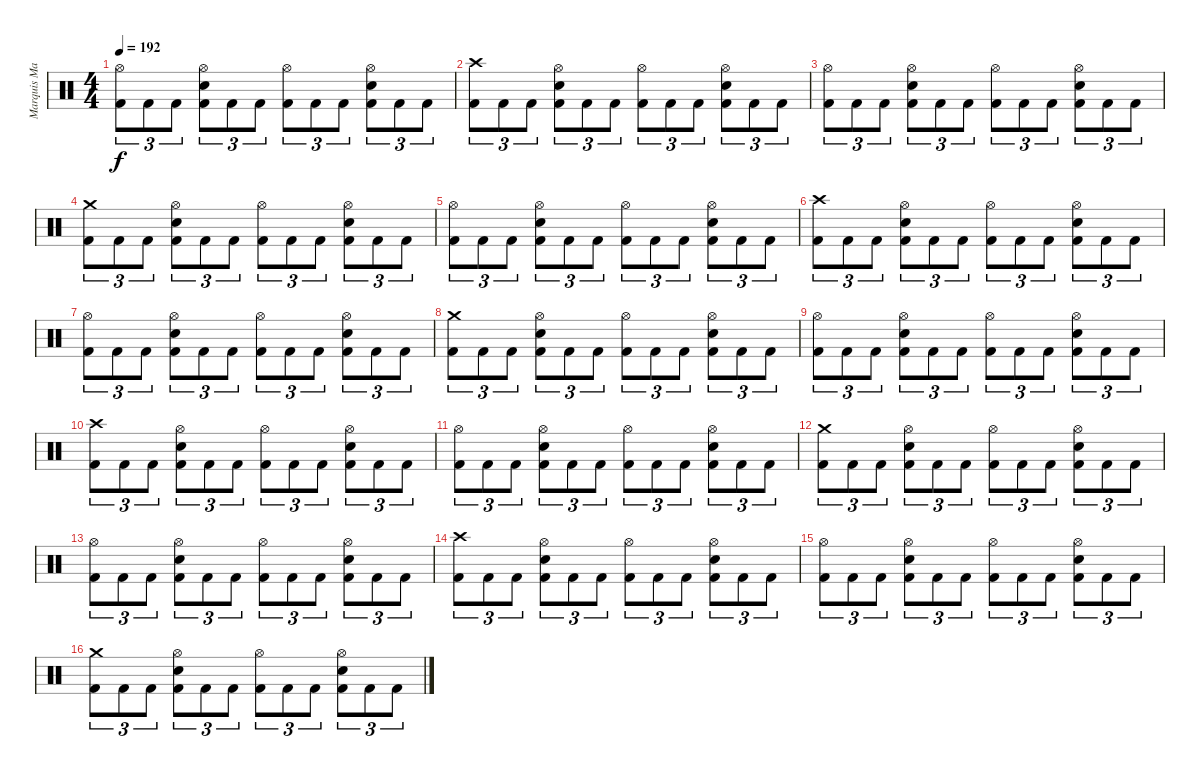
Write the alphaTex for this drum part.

\track ("Marquis Marky (DRUMS)" "Marquis Ma") {instrument percussion}
\staff {score}
\articulation defaults
\ts (4 4)
\tempo 192
\clef neutral
\ks c
("Hi-Hat (open)" "Kick (hit) 2").8{tu (3 2) dy f} "Kick (hit) 2".8{tu (3 2)} "Kick (hit) 2".8{tu (3 2)} ("Hi-Hat (open)" "Snare (hit) 2" "Kick (hit) 2").8{tu (3 2)} "Kick (hit) 2".8{tu (3 2)} "Kick (hit) 2".8{tu (3 2)} ("Hi-Hat (open)" "Kick (hit) 2").8{tu (3 2)} "Kick (hit) 2".8{tu (3 2)} "Kick (hit) 2".8{tu (3 2)} ("Hi-Hat (open)" "Snare (hit) 2" "Kick (hit) 2").8{tu (3 2)} "Kick (hit) 2".8{tu (3 2)} "Kick (hit) 2".8{tu (3 2)} |
("Crash high (hit)" "Kick (hit) 2").8{tu (3 2)} "Kick (hit) 2".8{tu (3 2)} "Kick (hit) 2".8{tu (3 2)} ("Hi-Hat (open)" "Snare (hit) 2" "Kick (hit) 2").8{tu (3 2)} "Kick (hit) 2".8{tu (3 2)} "Kick (hit) 2".8{tu (3 2)} ("Hi-Hat (open)" "Kick (hit) 2").8{tu (3 2)} "Kick (hit) 2".8{tu (3 2)} "Kick (hit) 2".8{tu (3 2)} ("Hi-Hat (open)" "Snare (hit) 2" "Kick (hit) 2").8{tu (3 2)} "Kick (hit) 2".8{tu (3 2)} "Kick (hit) 2".8{tu (3 2)} |
("Hi-Hat (open)" "Kick (hit) 2").8{tu (3 2)} "Kick (hit) 2".8{tu (3 2)} "Kick (hit) 2".8{tu (3 2)} ("Hi-Hat (open)" "Snare (hit) 2" "Kick (hit) 2").8{tu (3 2)} "Kick (hit) 2".8{tu (3 2)} "Kick (hit) 2".8{tu (3 2)} ("Hi-Hat (open)" "Kick (hit) 2").8{tu (3 2)} "Kick (hit) 2".8{tu (3 2)} "Kick (hit) 2".8{tu (3 2)} ("Hi-Hat (open)" "Snare (hit) 2" "Kick (hit) 2").8{tu (3 2)} "Kick (hit) 2".8{tu (3 2)} "Kick (hit) 2".8{tu (3 2)} |
("Crash medium (hit)" "Kick (hit) 2").8{tu (3 2)} "Kick (hit) 2".8{tu (3 2)} "Kick (hit) 2".8{tu (3 2)} ("Hi-Hat (open)" "Snare (hit) 2" "Kick (hit) 2").8{tu (3 2)} "Kick (hit) 2".8{tu (3 2)} "Kick (hit) 2".8{tu (3 2)} ("Hi-Hat (open)" "Kick (hit) 2").8{tu (3 2)} "Kick (hit) 2".8{tu (3 2)} "Kick (hit) 2".8{tu (3 2)} ("Hi-Hat (open)" "Snare (hit) 2" "Kick (hit) 2").8{tu (3 2)} "Kick (hit) 2".8{tu (3 2)} "Kick (hit) 2".8{tu (3 2)} |
("Hi-Hat (open)" "Kick (hit) 2").8{tu (3 2)} "Kick (hit) 2".8{tu (3 2)} "Kick (hit) 2".8{tu (3 2)} ("Hi-Hat (open)" "Snare (hit) 2" "Kick (hit) 2").8{tu (3 2)} "Kick (hit) 2".8{tu (3 2)} "Kick (hit) 2".8{tu (3 2)} ("Hi-Hat (open)" "Kick (hit) 2").8{tu (3 2)} "Kick (hit) 2".8{tu (3 2)} "Kick (hit) 2".8{tu (3 2)} ("Hi-Hat (open)" "Snare (hit) 2" "Kick (hit) 2").8{tu (3 2)} "Kick (hit) 2".8{tu (3 2)} "Kick (hit) 2".8{tu (3 2)} |
("Crash high (hit)" "Kick (hit) 2").8{tu (3 2)} "Kick (hit) 2".8{tu (3 2)} "Kick (hit) 2".8{tu (3 2)} ("Hi-Hat (open)" "Snare (hit) 2" "Kick (hit) 2").8{tu (3 2)} "Kick (hit) 2".8{tu (3 2)} "Kick (hit) 2".8{tu (3 2)} ("Hi-Hat (open)" "Kick (hit) 2").8{tu (3 2)} "Kick (hit) 2".8{tu (3 2)} "Kick (hit) 2".8{tu (3 2)} ("Hi-Hat (open)" "Snare (hit) 2" "Kick (hit) 2").8{tu (3 2)} "Kick (hit) 2".8{tu (3 2)} "Kick (hit) 2".8{tu (3 2)} |
("Hi-Hat (open)" "Kick (hit) 2").8{tu (3 2)} "Kick (hit) 2".8{tu (3 2)} "Kick (hit) 2".8{tu (3 2)} ("Hi-Hat (open)" "Snare (hit) 2" "Kick (hit) 2").8{tu (3 2)} "Kick (hit) 2".8{tu (3 2)} "Kick (hit) 2".8{tu (3 2)} ("Hi-Hat (open)" "Kick (hit) 2").8{tu (3 2)} "Kick (hit) 2".8{tu (3 2)} "Kick (hit) 2".8{tu (3 2)} ("Hi-Hat (open)" "Snare (hit) 2" "Kick (hit) 2").8{tu (3 2)} "Kick (hit) 2".8{tu (3 2)} "Kick (hit) 2".8{tu (3 2)} |
("Crash medium (hit)" "Kick (hit) 2").8{tu (3 2)} "Kick (hit) 2".8{tu (3 2)} "Kick (hit) 2".8{tu (3 2)} ("Hi-Hat (open)" "Snare (hit) 2" "Kick (hit) 2").8{tu (3 2)} "Kick (hit) 2".8{tu (3 2)} "Kick (hit) 2".8{tu (3 2)} ("Hi-Hat (open)" "Kick (hit) 2").8{tu (3 2)} "Kick (hit) 2".8{tu (3 2)} "Kick (hit) 2".8{tu (3 2)} ("Hi-Hat (open)" "Snare (hit) 2" "Kick (hit) 2").8{tu (3 2)} "Kick (hit) 2".8{tu (3 2)} "Kick (hit) 2".8{tu (3 2)} |
("Hi-Hat (open)" "Kick (hit) 2").8{tu (3 2)} "Kick (hit) 2".8{tu (3 2)} "Kick (hit) 2".8{tu (3 2)} ("Hi-Hat (open)" "Snare (hit) 2" "Kick (hit) 2").8{tu (3 2)} "Kick (hit) 2".8{tu (3 2)} "Kick (hit) 2".8{tu (3 2)} ("Hi-Hat (open)" "Kick (hit) 2").8{tu (3 2)} "Kick (hit) 2".8{tu (3 2)} "Kick (hit) 2".8{tu (3 2)} ("Hi-Hat (open)" "Snare (hit) 2" "Kick (hit) 2").8{tu (3 2)} "Kick (hit) 2".8{tu (3 2)} "Kick (hit) 2".8{tu (3 2)} |
("Crash high (hit)" "Kick (hit) 2").8{tu (3 2)} "Kick (hit) 2".8{tu (3 2)} "Kick (hit) 2".8{tu (3 2)} ("Hi-Hat (open)" "Snare (hit) 2" "Kick (hit) 2").8{tu (3 2)} "Kick (hit) 2".8{tu (3 2)} "Kick (hit) 2".8{tu (3 2)} ("Hi-Hat (open)" "Kick (hit) 2").8{tu (3 2)} "Kick (hit) 2".8{tu (3 2)} "Kick (hit) 2".8{tu (3 2)} ("Hi-Hat (open)" "Snare (hit) 2" "Kick (hit) 2").8{tu (3 2)} "Kick (hit) 2".8{tu (3 2)} "Kick (hit) 2".8{tu (3 2)} |
("Hi-Hat (open)" "Kick (hit) 2").8{tu (3 2)} "Kick (hit) 2".8{tu (3 2)} "Kick (hit) 2".8{tu (3 2)} ("Hi-Hat (open)" "Snare (hit) 2" "Kick (hit) 2").8{tu (3 2)} "Kick (hit) 2".8{tu (3 2)} "Kick (hit) 2".8{tu (3 2)} ("Hi-Hat (open)" "Kick (hit) 2").8{tu (3 2)} "Kick (hit) 2".8{tu (3 2)} "Kick (hit) 2".8{tu (3 2)} ("Hi-Hat (open)" "Snare (hit) 2" "Kick (hit) 2").8{tu (3 2)} "Kick (hit) 2".8{tu (3 2)} "Kick (hit) 2".8{tu (3 2)} |
("Crash medium (hit)" "Kick (hit) 2").8{tu (3 2)} "Kick (hit) 2".8{tu (3 2)} "Kick (hit) 2".8{tu (3 2)} ("Hi-Hat (open)" "Snare (hit) 2" "Kick (hit) 2").8{tu (3 2)} "Kick (hit) 2".8{tu (3 2)} "Kick (hit) 2".8{tu (3 2)} ("Hi-Hat (open)" "Kick (hit) 2").8{tu (3 2)} "Kick (hit) 2".8{tu (3 2)} "Kick (hit) 2".8{tu (3 2)} ("Hi-Hat (open)" "Snare (hit) 2" "Kick (hit) 2").8{tu (3 2)} "Kick (hit) 2".8{tu (3 2)} "Kick (hit) 2".8{tu (3 2)} |
("Hi-Hat (open)" "Kick (hit) 2").8{tu (3 2)} "Kick (hit) 2".8{tu (3 2)} "Kick (hit) 2".8{tu (3 2)} ("Hi-Hat (open)" "Snare (hit) 2" "Kick (hit) 2").8{tu (3 2)} "Kick (hit) 2".8{tu (3 2)} "Kick (hit) 2".8{tu (3 2)} ("Hi-Hat (open)" "Kick (hit) 2").8{tu (3 2)} "Kick (hit) 2".8{tu (3 2)} "Kick (hit) 2".8{tu (3 2)} ("Hi-Hat (open)" "Snare (hit) 2" "Kick (hit) 2").8{tu (3 2)} "Kick (hit) 2".8{tu (3 2)} "Kick (hit) 2".8{tu (3 2)} |
("Crash high (hit)" "Kick (hit) 2").8{tu (3 2)} "Kick (hit) 2".8{tu (3 2)} "Kick (hit) 2".8{tu (3 2)} ("Hi-Hat (open)" "Snare (hit) 2" "Kick (hit) 2").8{tu (3 2)} "Kick (hit) 2".8{tu (3 2)} "Kick (hit) 2".8{tu (3 2)} ("Hi-Hat (open)" "Kick (hit) 2").8{tu (3 2)} "Kick (hit) 2".8{tu (3 2)} "Kick (hit) 2".8{tu (3 2)} ("Hi-Hat (open)" "Snare (hit) 2" "Kick (hit) 2").8{tu (3 2)} "Kick (hit) 2".8{tu (3 2)} "Kick (hit) 2".8{tu (3 2)} |
("Hi-Hat (open)" "Kick (hit) 2").8{tu (3 2)} "Kick (hit) 2".8{tu (3 2)} "Kick (hit) 2".8{tu (3 2)} ("Hi-Hat (open)" "Snare (hit) 2" "Kick (hit) 2").8{tu (3 2)} "Kick (hit) 2".8{tu (3 2)} "Kick (hit) 2".8{tu (3 2)} ("Hi-Hat (open)" "Kick (hit) 2").8{tu (3 2)} "Kick (hit) 2".8{tu (3 2)} "Kick (hit) 2".8{tu (3 2)} ("Hi-Hat (open)" "Snare (hit) 2" "Kick (hit) 2").8{tu (3 2)} "Kick (hit) 2".8{tu (3 2)} "Kick (hit) 2".8{tu (3 2)} |
("Crash medium (hit)" "Kick (hit) 2").8{tu (3 2)} "Kick (hit) 2".8{tu (3 2)} "Kick (hit) 2".8{tu (3 2)} ("Hi-Hat (open)" "Snare (hit) 2" "Kick (hit) 2").8{tu (3 2)} "Kick (hit) 2".8{tu (3 2)} "Kick (hit) 2".8{tu (3 2)} ("Hi-Hat (open)" "Kick (hit) 2").8{tu (3 2)} "Kick (hit) 2".8{tu (3 2)} "Kick (hit) 2".8{tu (3 2)} ("Hi-Hat (open)" "Snare (hit) 2" "Kick (hit) 2").8{tu (3 2)} "Kick (hit) 2".8{tu (3 2)} "Kick (hit) 2".8{tu (3 2)}
